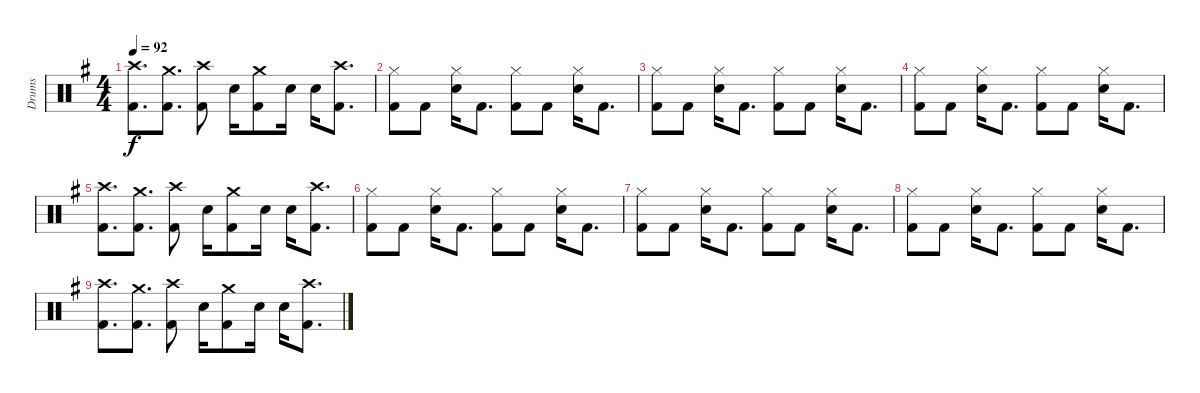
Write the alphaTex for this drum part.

\track ("Drums" "Drums") {instrument percussion}
\staff {score}
\articulation defaults
\ts (4 4)
\tempo 92
\clef neutral
\ks eminor
("Crash high (hit)" "Kick (hit) 2").8{d dy f} ("Crash medium (hit)" "Kick (hit) 2").8{d} ("Crash high (hit)" "Kick (hit) 2").8 "Snare (hit) 2".16 ("Crash medium (hit)" "Kick (hit) 2").8 "Snare (hit) 2".16 "Snare (hit) 2".16 ("Crash high (hit)" "Kick (hit) 2").8{d} |
("Hi-Hat (closed)" "Kick (hit) 2").8 "Kick (hit) 2".8 ("Hi-Hat (closed)" "Snare (hit) 2").16 "Kick (hit) 2".8{d} ("Hi-Hat (closed)" "Kick (hit) 2").8 "Kick (hit) 2".8 ("Hi-Hat (closed)" "Snare (hit) 2").16 "Kick (hit) 2".8{d} |
("Hi-Hat (closed)" "Kick (hit) 2").8 "Kick (hit) 2".8 ("Hi-Hat (closed)" "Snare (hit) 2").16 "Kick (hit) 2".8{d} ("Hi-Hat (closed)" "Kick (hit) 2").8 "Kick (hit) 2".8 ("Hi-Hat (closed)" "Snare (hit) 2").16 "Kick (hit) 2".8{d} |
("Hi-Hat (closed)" "Kick (hit) 2").8 "Kick (hit) 2".8 ("Hi-Hat (closed)" "Snare (hit) 2").16 "Kick (hit) 2".8{d} ("Hi-Hat (closed)" "Kick (hit) 2").8 "Kick (hit) 2".8 ("Hi-Hat (closed)" "Snare (hit) 2").16 "Kick (hit) 2".8{d} |
("Crash high (hit)" "Kick (hit) 2").8{d} ("Crash medium (hit)" "Kick (hit) 2").8{d} ("Crash high (hit)" "Kick (hit) 2").8 "Snare (hit) 2".16 ("Crash medium (hit)" "Kick (hit) 2").8 "Snare (hit) 2".16 "Snare (hit) 2".16 ("Crash high (hit)" "Kick (hit) 2").8{d} |
("Hi-Hat (closed)" "Kick (hit) 2").8 "Kick (hit) 2".8 ("Hi-Hat (closed)" "Snare (hit) 2").16 "Kick (hit) 2".8{d} ("Hi-Hat (closed)" "Kick (hit) 2").8 "Kick (hit) 2".8 ("Hi-Hat (closed)" "Snare (hit) 2").16 "Kick (hit) 2".8{d} |
("Hi-Hat (closed)" "Kick (hit) 2").8 "Kick (hit) 2".8 ("Hi-Hat (closed)" "Snare (hit) 2").16 "Kick (hit) 2".8{d} ("Hi-Hat (closed)" "Kick (hit) 2").8 "Kick (hit) 2".8 ("Hi-Hat (closed)" "Snare (hit) 2").16 "Kick (hit) 2".8{d} |
("Hi-Hat (closed)" "Kick (hit) 2").8 "Kick (hit) 2".8 ("Hi-Hat (closed)" "Snare (hit) 2").16 "Kick (hit) 2".8{d} ("Hi-Hat (closed)" "Kick (hit) 2").8 "Kick (hit) 2".8 ("Hi-Hat (closed)" "Snare (hit) 2").16 "Kick (hit) 2".8{d} |
("Crash high (hit)" "Kick (hit) 2").8{d} ("Crash medium (hit)" "Kick (hit) 2").8{d} ("Crash high (hit)" "Kick (hit) 2").8 "Snare (hit) 2".16 ("Crash medium (hit)" "Kick (hit) 2").8 "Snare (hit) 2".16 "Snare (hit) 2".16 ("Crash high (hit)" "Kick (hit) 2").8{d}
